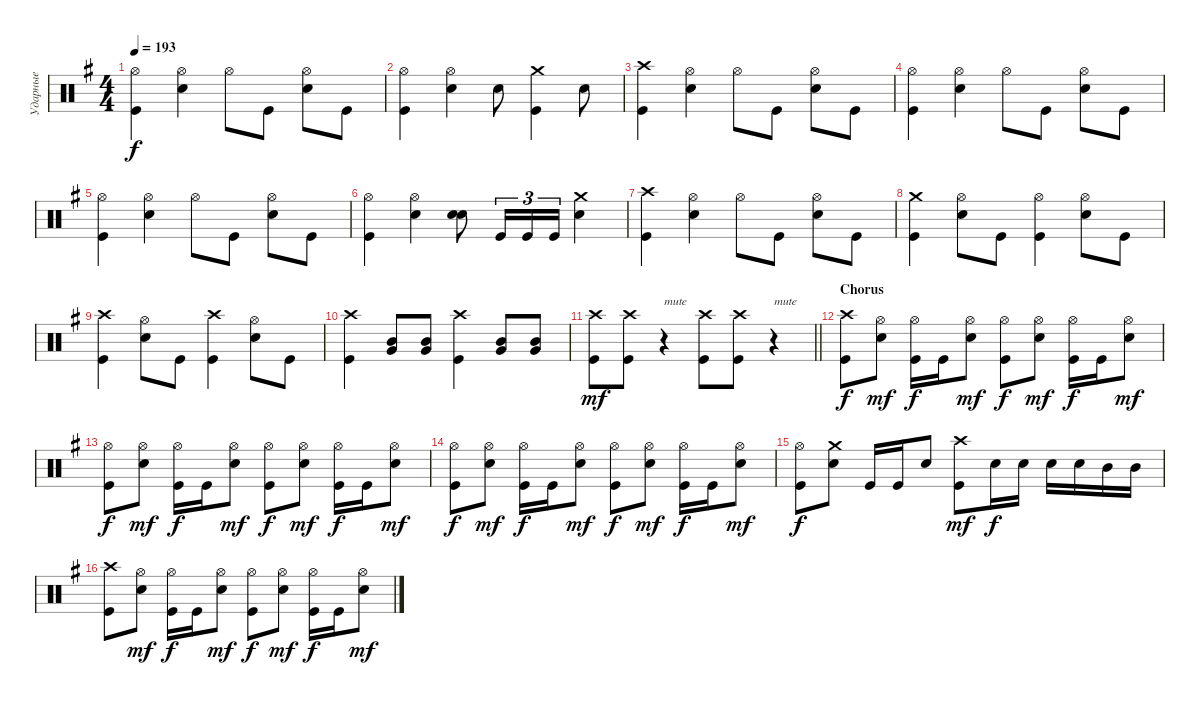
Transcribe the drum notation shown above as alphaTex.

\track ("Ударные" "Ударные") {instrument percussion}
\staff {score}
\articulation defaults
\ts (4 4)
\tempo 193
\clef neutral
\ks eminor
("Kick (hit)" "Hi-Hat (open)").4{dy f} ("Snare (hit) 2" "Hi-Hat (open)").4 "Hi-Hat (open)".8 "Kick (hit)".8 ("Snare (hit) 2" "Hi-Hat (open)").8 "Kick (hit)".8 |
("Kick (hit)" "Hi-Hat (open)").4 ("Snare (hit) 2" "Hi-Hat (open)").4 "Snare (hit) 2".8 ("Kick (hit)" "Crash medium (hit)").4 "Snare (hit) 2".8 |
("Kick (hit)" "Crash high (hit)").4 ("Snare (hit) 2" "Hi-Hat (open)").4 "Hi-Hat (open)".8 "Kick (hit)".8 ("Snare (hit) 2" "Hi-Hat (open)").8 "Kick (hit)".8 |
("Kick (hit)" "Hi-Hat (open)").4 ("Snare (hit) 2" "Hi-Hat (open)").4 "Hi-Hat (open)".8 "Kick (hit)".8 ("Snare (hit) 2" "Hi-Hat (open)").8 "Kick (hit)".8 |
("Kick (hit)" "Hi-Hat (open)").4 ("Snare (hit) 2" "Hi-Hat (open)").4 "Hi-Hat (open)".8 "Kick (hit)".8 ("Snare (hit) 2" "Hi-Hat (open)").8 "Kick (hit)".8 |
("Kick (hit)" "Hi-Hat (open)").4 ("Snare (hit) 2" "Hi-Hat (open)").4 ("Snare (hit) 2" "Snare (hit) 2").8{bd 240} "Kick (hit)".16{tu (3 2)} "Kick (hit)".16{tu (3 2)} "Kick (hit)".16{tu (3 2)} ("Snare (hit) 2" "Crash medium (hit)").4 |
("Kick (hit)" "Crash high (hit)").4 ("Snare (hit) 2" "Hi-Hat (open)").4 "Hi-Hat (open)".8 "Kick (hit)".8 ("Snare (hit) 2" "Hi-Hat (open)").8 "Kick (hit)".8 |
("Kick (hit)" "Crash medium (hit)").4 ("Snare (hit) 2" "Hi-Hat (open)").8 "Kick (hit)".8 ("Kick (hit)" "Hi-Hat (open)").4 ("Snare (hit) 2" "Hi-Hat (open)").8 "Kick (hit)".8 |
("Kick (hit)" "Crash high (hit)").4 ("Snare (hit) 2" "Hi-Hat (open)").8 "Kick (hit)".8 ("Kick (hit)" "Crash high (hit)").4 ("Snare (hit) 2" "Hi-Hat (open)").8 "Kick (hit)".8 |
("Kick (hit)" "Crash high (hit)").4 ("Mid Tom (hit)" "Very Low Tom (hit)").8{bd 240} ("Very Low Tom (hit)" "Mid Tom (hit)").8{bd 240} ("Kick (hit)" "Crash high (hit)").4 ("Mid Tom (hit)" "Very Low Tom (hit)").8{bd 240} ("Very Low Tom (hit)" "Mid Tom (hit)").8{bd 240} |
\barLineRight lightlight
("Kick (hit)" "Crash high (hit)").8{dy mf} ("Kick (hit)" "Crash high (hit)").8 r.4{txt "mute"} ("Kick (hit)" "Crash high (hit)").8 ("Kick (hit)" "Crash high (hit)").8 r.4{txt "mute"} |
\section ("" "Chorus")
("Kick (hit)" "Crash high (hit)").8{dy f} ("Snare (hit) 2" "Hi-Hat (open)").8{dy mf} ("Kick (hit)" "Hi-Hat (open)").16{dy f} "Kick (hit)".16 ("Snare (hit) 2" "Hi-Hat (open)").8{dy mf} ("Kick (hit)" "Hi-Hat (open)").8{dy f} ("Snare (hit) 2" "Hi-Hat (open)").8{dy mf} ("Kick (hit)" "Hi-Hat (open)").16{dy f} "Kick (hit)".16 ("Snare (hit) 2" "Hi-Hat (open)").8{dy mf} |
("Kick (hit)" "Hi-Hat (open)").8{dy f} ("Snare (hit) 2" "Hi-Hat (open)").8{dy mf} ("Kick (hit)" "Hi-Hat (open)").16{dy f} "Kick (hit)".16 ("Snare (hit) 2" "Hi-Hat (open)").8{dy mf} ("Kick (hit)" "Hi-Hat (open)").8{dy f} ("Snare (hit) 2" "Hi-Hat (open)").8{dy mf} ("Kick (hit)" "Hi-Hat (open)").16{dy f} "Kick (hit)".16 ("Snare (hit) 2" "Hi-Hat (open)").8{dy mf} |
("Kick (hit)" "Hi-Hat (open)").8{dy f} ("Snare (hit) 2" "Hi-Hat (open)").8{dy mf} ("Kick (hit)" "Hi-Hat (open)").16{dy f} "Kick (hit)".16 ("Snare (hit) 2" "Hi-Hat (open)").8{dy mf} ("Kick (hit)" "Hi-Hat (open)").8{dy f} ("Snare (hit) 2" "Hi-Hat (open)").8{dy mf} ("Kick (hit)" "Hi-Hat (open)").16{dy f} "Kick (hit)".16 ("Snare (hit) 2" "Hi-Hat (open)").8{dy mf} |
("Kick (hit)" "Hi-Hat (open)").8{dy f} ("Snare (hit) 2" "Crash medium (hit)").8 "Kick (hit)".16 "Kick (hit)".16 "Snare (hit) 2".8 ("Kick (hit)" "Crash high (hit)").8{dy mf} "Snare (hit) 2".16{dy f} "Snare (hit) 2".16 "Snare (hit) 2".16 "Snare (hit) 2".16 "Mid Tom (hit)".16 "Mid Tom (hit)".16 |
("Kick (hit)" "Crash high (hit)").8 ("Snare (hit) 2" "Hi-Hat (open)").8{dy mf} ("Kick (hit)" "Hi-Hat (open)").16{dy f} "Kick (hit)".16 ("Snare (hit) 2" "Hi-Hat (open)").8{dy mf} ("Kick (hit)" "Hi-Hat (open)").8{dy f} ("Snare (hit) 2" "Hi-Hat (open)").8{dy mf} ("Kick (hit)" "Hi-Hat (open)").16{dy f} "Kick (hit)".16 ("Snare (hit) 2" "Hi-Hat (open)").8{dy mf}
